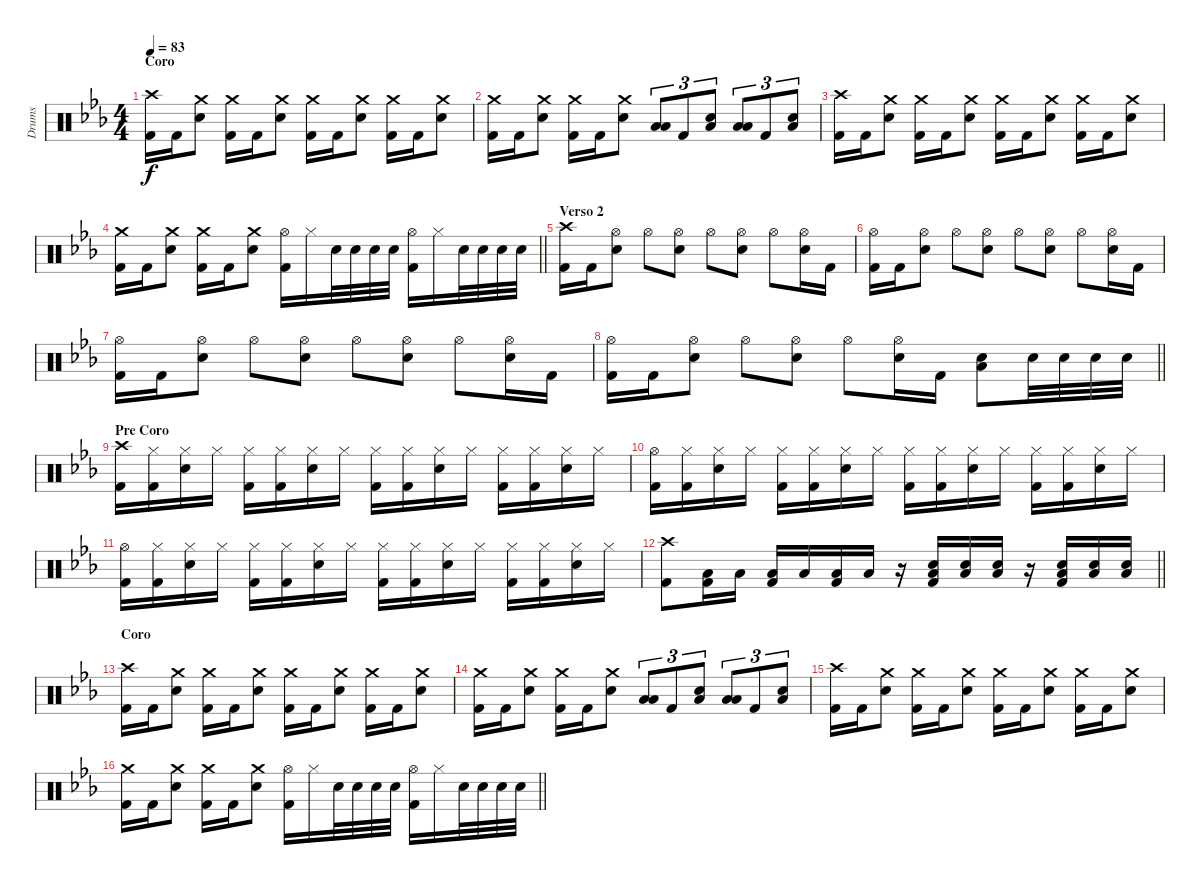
\track ("Drums" "Drums") {instrument percussion}
\staff {score}
\articulation defaults
\ts (4 4)
\section ("" "Coro")
\tempo 83
\clef neutral
\ks eb
("Crash high (hit)" "Kick (hit) 2").16{dy f} "Kick (hit) 2".16 ("Crash medium (hit)" "Snare (hit) 2").8 ("Crash medium (hit)" "Kick (hit) 2").16 "Kick (hit) 2".16 ("Crash medium (hit)" "Snare (hit) 2").8 ("Crash medium (hit)" "Kick (hit) 2").16 "Kick (hit) 2".16 ("Crash medium (hit)" "Snare (hit) 2").8 ("Crash medium (hit)" "Kick (hit) 2").16 "Kick (hit) 2".16 ("Crash medium (hit)" "Snare (hit) 2").8 |
("Crash medium (hit)" "Kick (hit) 2").16 "Kick (hit) 2".16 ("Crash medium (hit)" "Snare (hit) 2").8 ("Crash medium (hit)" "Kick (hit) 2").16 "Kick (hit) 2".16 ("Crash medium (hit)" "Snare (hit) 2").8 ("Low Tom (hit)" "Low Floor Tom (hit)").8{tu (3 2)} "Kick (hit) 2".8{tu (3 2)} ("Low Floor Tom (hit)" "Snare (hit) 2").8{tu (3 2)} ("Low Tom (hit)" "Low Floor Tom (hit)").8{tu (3 2)} "Kick (hit) 2".8{tu (3 2)} ("Low Floor Tom (hit)" "Snare (hit) 2").8{tu (3 2)} |
("Crash high (hit)" "Kick (hit) 2").16 "Kick (hit) 2".16 ("Crash medium (hit)" "Snare (hit) 2").8 ("Crash medium (hit)" "Kick (hit) 2").16 "Kick (hit) 2".16 ("Crash medium (hit)" "Snare (hit) 2").8 ("Crash medium (hit)" "Kick (hit) 2").16 "Kick (hit) 2".16 ("Crash medium (hit)" "Snare (hit) 2").8 ("Crash medium (hit)" "Kick (hit) 2").16 "Kick (hit) 2".16 ("Crash medium (hit)" "Snare (hit) 2").8 |
\barLineRight lightlight
("Crash medium (hit)" "Kick (hit) 2").16 "Kick (hit) 2".16 ("Crash medium (hit)" "Snare (hit) 2").8 ("Crash medium (hit)" "Kick (hit) 2").16 "Kick (hit) 2".16 ("Crash medium (hit)" "Snare (hit) 2").8 ("Hi-Hat (open)" "Kick (hit) 2").16 "Hi-Hat (closed)".16 "Snare (hit) 2".32 "Snare (hit) 2".32 "Snare (hit) 2".32 "Snare (hit) 2".32 ("Hi-Hat (open)" "Kick (hit) 2").16 "Hi-Hat (closed)".16 "Snare (hit) 2".32 "Snare (hit) 2".32 "Snare (hit) 2".32 "Snare (hit) 2".32 |
\section ("" "Verso 2")
("Crash high (hit)" "Kick (hit) 2").16 "Kick (hit) 2".16 ("Hi-Hat (open)" "Snare (hit) 2").8 "Hi-Hat (open)".8 ("Hi-Hat (open)" "Snare (hit) 2").8 "Hi-Hat (open)".8 ("Hi-Hat (open)" "Snare (hit) 2").8 "Hi-Hat (open)".8 ("Hi-Hat (open)" "Snare (hit) 2").16 "Kick (hit) 2".16 |
("Hi-Hat (open)" "Kick (hit) 2").16 "Kick (hit) 2".16 ("Hi-Hat (open)" "Snare (hit) 2").8 "Hi-Hat (open)".8 ("Hi-Hat (open)" "Snare (hit) 2").8 "Hi-Hat (open)".8 ("Hi-Hat (open)" "Snare (hit) 2").8 "Hi-Hat (open)".8 ("Hi-Hat (open)" "Snare (hit) 2").16 "Kick (hit) 2".16 |
("Hi-Hat (open)" "Kick (hit) 2").16 "Kick (hit) 2".16 ("Hi-Hat (open)" "Snare (hit) 2").8 "Hi-Hat (open)".8 ("Hi-Hat (open)" "Snare (hit) 2").8 "Hi-Hat (open)".8 ("Hi-Hat (open)" "Snare (hit) 2").8 "Hi-Hat (open)".8 ("Hi-Hat (open)" "Snare (hit) 2").16 "Kick (hit) 2".16 |
\barLineRight lightlight
("Hi-Hat (open)" "Kick (hit) 2").16 "Kick (hit) 2".16 ("Hi-Hat (open)" "Snare (hit) 2").8 "Hi-Hat (open)".8 ("Hi-Hat (open)" "Snare (hit) 2").8 "Hi-Hat (open)".8 ("Hi-Hat (open)" "Snare (hit) 2").16 "Kick (hit) 2".16 ("Low Floor Tom (hit)" "Snare (hit) 2").8 "Snare (hit) 2".32 "Snare (hit) 2".32 "Snare (hit) 2".32 "Snare (hit) 2".32 |
\section ("" "Pre Coro")
("Crash high (hit)" "Kick (hit) 2").16 ("Hi-Hat (closed)" "Kick (hit) 2").16 ("Hi-Hat (closed)" "Snare (hit) 2").16 "Hi-Hat (closed)".16 ("Hi-Hat (closed)" "Kick (hit) 2").16 ("Hi-Hat (closed)" "Kick (hit) 2").16 ("Hi-Hat (closed)" "Snare (hit) 2").16 "Hi-Hat (closed)".16 ("Hi-Hat (closed)" "Kick (hit) 2").16 ("Hi-Hat (closed)" "Kick (hit) 2").16 ("Hi-Hat (closed)" "Snare (hit) 2").16 "Hi-Hat (closed)".16 ("Hi-Hat (closed)" "Kick (hit) 2").16 ("Hi-Hat (closed)" "Kick (hit) 2").16 ("Hi-Hat (closed)" "Snare (hit) 2").16 "Hi-Hat (closed)".16 |
("Hi-Hat (open)" "Kick (hit) 2").16 ("Hi-Hat (closed)" "Kick (hit) 2").16 ("Hi-Hat (closed)" "Snare (hit) 2").16 "Hi-Hat (closed)".16 ("Hi-Hat (closed)" "Kick (hit) 2").16 ("Hi-Hat (closed)" "Kick (hit) 2").16 ("Hi-Hat (closed)" "Snare (hit) 2").16 "Hi-Hat (closed)".16 ("Hi-Hat (closed)" "Kick (hit) 2").16 ("Hi-Hat (closed)" "Kick (hit) 2").16 ("Hi-Hat (closed)" "Snare (hit) 2").16 "Hi-Hat (closed)".16 ("Hi-Hat (closed)" "Kick (hit) 2").16 ("Hi-Hat (closed)" "Kick (hit) 2").16 ("Hi-Hat (closed)" "Snare (hit) 2").16 "Hi-Hat (closed)".16 |
("Hi-Hat (open)" "Kick (hit) 2").16 ("Hi-Hat (closed)" "Kick (hit) 2").16 ("Hi-Hat (closed)" "Snare (hit) 2").16 "Hi-Hat (closed)".16 ("Hi-Hat (closed)" "Kick (hit) 2").16 ("Hi-Hat (closed)" "Kick (hit) 2").16 ("Hi-Hat (closed)" "Snare (hit) 2").16 "Hi-Hat (closed)".16 ("Hi-Hat (closed)" "Kick (hit) 2").16 ("Hi-Hat (closed)" "Kick (hit) 2").16 ("Hi-Hat (closed)" "Snare (hit) 2").16 "Hi-Hat (closed)".16 ("Hi-Hat (closed)" "Kick (hit) 2").16 ("Hi-Hat (closed)" "Kick (hit) 2").16 ("Hi-Hat (closed)" "Snare (hit) 2").16 "Hi-Hat (closed)".16 |
\barLineRight lightlight
("Crash high (hit)" "Kick (hit) 2").8 ("Low Floor Tom (hit)" "Kick (hit) 2").16 "Low Floor Tom (hit)".16 ("Low Floor Tom (hit)" "Kick (hit) 2").16 "Low Floor Tom (hit)".16 ("Low Floor Tom (hit)" "Kick (hit) 2").16 "Low Floor Tom (hit)".16 r.16 ("Low Floor Tom (hit)" "Snare (hit) 2" "Kick (hit) 2").16 ("Low Floor Tom (hit)" "Snare (hit) 2").16 ("Low Floor Tom (hit)" "Snare (hit) 2").16 r.16 ("Low Floor Tom (hit)" "Snare (hit) 2" "Kick (hit) 2").16 ("Low Floor Tom (hit)" "Snare (hit) 2").16 ("Low Floor Tom (hit)" "Snare (hit) 2").16 |
\section ("" "Coro")
("Crash high (hit)" "Kick (hit) 2").16 "Kick (hit) 2".16 ("Crash medium (hit)" "Snare (hit) 2").8 ("Crash medium (hit)" "Kick (hit) 2").16 "Kick (hit) 2".16 ("Crash medium (hit)" "Snare (hit) 2").8 ("Crash medium (hit)" "Kick (hit) 2").16 "Kick (hit) 2".16 ("Crash medium (hit)" "Snare (hit) 2").8 ("Crash medium (hit)" "Kick (hit) 2").16 "Kick (hit) 2".16 ("Crash medium (hit)" "Snare (hit) 2").8 |
("Crash medium (hit)" "Kick (hit) 2").16 "Kick (hit) 2".16 ("Crash medium (hit)" "Snare (hit) 2").8 ("Crash medium (hit)" "Kick (hit) 2").16 "Kick (hit) 2".16 ("Crash medium (hit)" "Snare (hit) 2").8 ("Low Tom (hit)" "Low Floor Tom (hit)").8{tu (3 2)} "Kick (hit) 2".8{tu (3 2)} ("Low Floor Tom (hit)" "Snare (hit) 2").8{tu (3 2)} ("Low Tom (hit)" "Low Floor Tom (hit)").8{tu (3 2)} "Kick (hit) 2".8{tu (3 2)} ("Low Floor Tom (hit)" "Snare (hit) 2").8{tu (3 2)} |
("Crash high (hit)" "Kick (hit) 2").16 "Kick (hit) 2".16 ("Crash medium (hit)" "Snare (hit) 2").8 ("Crash medium (hit)" "Kick (hit) 2").16 "Kick (hit) 2".16 ("Crash medium (hit)" "Snare (hit) 2").8 ("Crash medium (hit)" "Kick (hit) 2").16 "Kick (hit) 2".16 ("Crash medium (hit)" "Snare (hit) 2").8 ("Crash medium (hit)" "Kick (hit) 2").16 "Kick (hit) 2".16 ("Crash medium (hit)" "Snare (hit) 2").8 |
\barLineRight lightlight
("Crash medium (hit)" "Kick (hit) 2").16 "Kick (hit) 2".16 ("Crash medium (hit)" "Snare (hit) 2").8 ("Crash medium (hit)" "Kick (hit) 2").16 "Kick (hit) 2".16 ("Crash medium (hit)" "Snare (hit) 2").8 ("Hi-Hat (open)" "Kick (hit) 2").16 "Hi-Hat (closed)".16 "Snare (hit) 2".32 "Snare (hit) 2".32 "Snare (hit) 2".32 "Snare (hit) 2".32 ("Hi-Hat (open)" "Kick (hit) 2").16 "Hi-Hat (closed)".16 "Snare (hit) 2".32 "Snare (hit) 2".32 "Snare (hit) 2".32 "Snare (hit) 2".32
